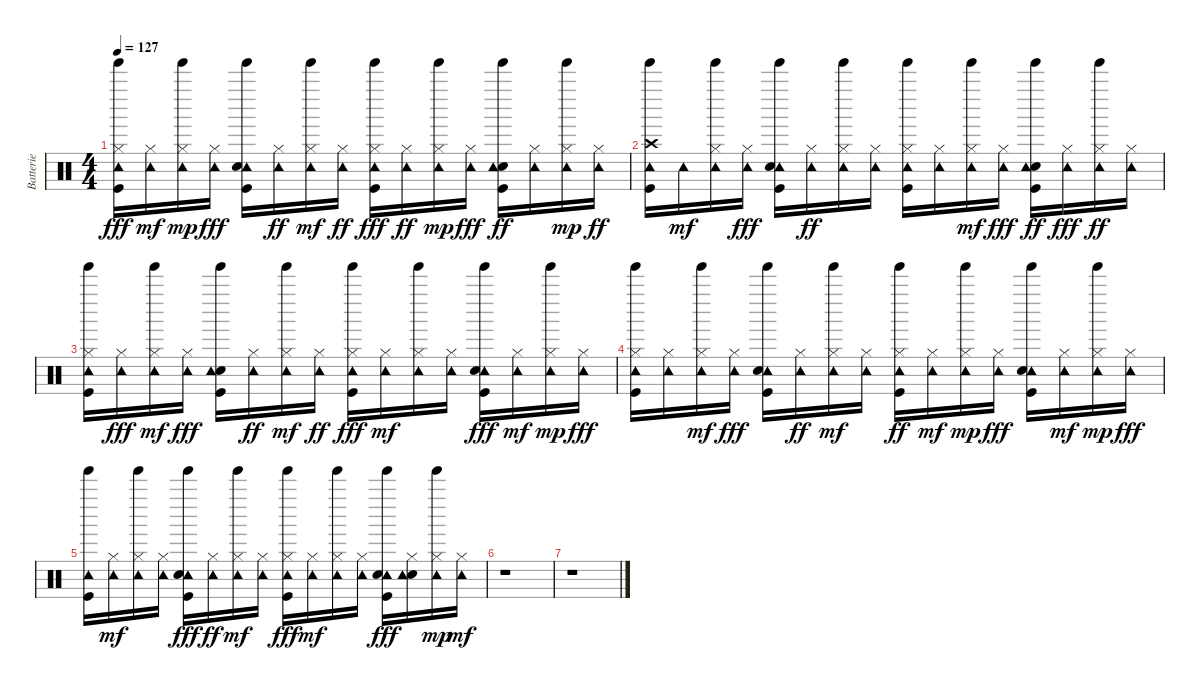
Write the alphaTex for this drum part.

\track ("Batterie" "Batterie") {instrument percussion}
\staff {score}
\articulation defaults
\ts (4 4)
\tempo 127
\clef neutral
\ks c
("Tinkle Bell (hit)" "Tambourine (hit)" "Hi-Hat (closed)" "Kick (hit)").16{dy fff} ("Tambourine (hit)" "Hi-Hat (closed)").16{dy mf} ("Tinkle Bell (hit)" "Hi-Hat (closed)" "Tambourine (hit)").16{dy mp} ("Tambourine (hit)" "Hi-Hat (closed)").16{dy fff} ("Tinkle Bell (hit)" "Tambourine (hit)" "Kick (hit)" "Snare (hit) 2").16 ("Tambourine (hit)" "Hi-Hat (closed)").16{dy ff} ("Tinkle Bell (hit)" "Tambourine (hit)" "Hi-Hat (closed)").16{dy mf} ("Tambourine (hit)" "Hi-Hat (closed)").16{dy ff} ("Tinkle Bell (hit)" "Tambourine (hit)" "Hi-Hat (closed)" "Kick (hit)").16{dy fff} ("Tambourine (hit)" "Hi-Hat (closed)").16{dy ff} ("Hi-Hat (closed)" "Tambourine (hit)" "Tinkle Bell (hit)").16{dy mp} ("Tambourine (hit)" "Hi-Hat (closed)").16{dy fff} ("Tinkle Bell (hit)" "Kick (hit)" "Snare (hit) 2" "Tambourine (hit)").16{dy ff} ("Tambourine (hit)" "Hi-Hat (closed)").16 ("Tinkle Bell (hit)" "Tambourine (hit)" "Hi-Hat (closed)").16{dy mp} ("Tambourine (hit)" "Hi-Hat (closed)").16{dy ff} |
("Crash high (hit)" "Tinkle Bell (hit)" "Kick (hit)" "Tambourine (hit)").16 "Tambourine (hit)".16{dy mf} ("Hi-Hat (closed)" "Tinkle Bell (hit)" "Tambourine (hit)").16 ("Tambourine (hit)" "Hi-Hat (closed)").16{dy fff} ("Tinkle Bell (hit)" "Kick (hit)" "Tambourine (hit)" "Snare (hit) 2").16 ("Tambourine (hit)" "Hi-Hat (closed)").16{dy ff} ("Tinkle Bell (hit)" "Tambourine (hit)" "Hi-Hat (closed)").16 ("Tambourine (hit)" "Hi-Hat (closed)").16 ("Tinkle Bell (hit)" "Kick (hit)" "Hi-Hat (closed)" "Tambourine (hit)").16 ("Tambourine (hit)" "Hi-Hat (closed)").16 ("Tinkle Bell (hit)" "Hi-Hat (closed)" "Tambourine (hit)").16{dy mf} ("Tambourine (hit)" "Hi-Hat (closed)").16{dy fff} ("Tinkle Bell (hit)" "Kick (hit)" "Snare (hit) 2" "Tambourine (hit)").16{dy ff} ("Tambourine (hit)" "Hi-Hat (closed)").16{dy fff} ("Tambourine (hit)" "Tinkle Bell (hit)" "Hi-Hat (closed)").16{dy ff} ("Tambourine (hit)" "Hi-Hat (closed)").16 |
("Tinkle Bell (hit)" "Kick (hit)" "Hi-Hat (closed)" "Tambourine (hit)").16 ("Tambourine (hit)" "Hi-Hat (closed)").16{dy fff} ("Hi-Hat (closed)" "Tambourine (hit)" "Tinkle Bell (hit)").16{dy mf} ("Tambourine (hit)" "Hi-Hat (closed)").16{dy fff} ("Tinkle Bell (hit)" "Snare (hit) 2" "Tambourine (hit)" "Kick (hit)").16 ("Tambourine (hit)" "Hi-Hat (closed)").16{dy ff} ("Tinkle Bell (hit)" "Hi-Hat (closed)" "Tambourine (hit)").16{dy mf} ("Tambourine (hit)" "Hi-Hat (closed)").16{dy ff} ("Tinkle Bell (hit)" "Hi-Hat (closed)" "Tambourine (hit)" "Kick (hit)").16{dy fff} ("Hi-Hat (closed)" "Tambourine (hit)").16{dy mf} ("Tinkle Bell (hit)" "Hi-Hat (closed)" "Tambourine (hit)").16 ("Hi-Hat (closed)" "Tambourine (hit)").16 ("Tinkle Bell (hit)" "Kick (hit)" "Tambourine (hit)" "Snare (hit) 2").16{dy fff} ("Hi-Hat (closed)" "Tambourine (hit)").16{dy mf} ("Hi-Hat (closed)" "Tinkle Bell (hit)" "Tambourine (hit)").16{dy mp} ("Tambourine (hit)" "Hi-Hat (closed)").16{dy fff} |
("Hi-Hat (closed)" "Tambourine (hit)" "Tinkle Bell (hit)" "Kick (hit)").16 ("Tambourine (hit)" "Hi-Hat (closed)").16 ("Tambourine (hit)" "Tinkle Bell (hit)" "Hi-Hat (closed)").16{dy mf} ("Tambourine (hit)" "Hi-Hat (closed)").16{dy fff} ("Tinkle Bell (hit)" "Kick (hit)" "Tambourine (hit)" "Snare (hit) 2").16 ("Tambourine (hit)" "Hi-Hat (closed)").16{dy ff} ("Hi-Hat (closed)" "Tambourine (hit)" "Tinkle Bell (hit)").16{dy mf} ("Hi-Hat (closed)" "Tambourine (hit)").16 ("Tinkle Bell (hit)" "Kick (hit)" "Hi-Hat (closed)" "Tambourine (hit)").16{dy ff} ("Hi-Hat (closed)" "Tambourine (hit)").16{dy mf} ("Tinkle Bell (hit)" "Hi-Hat (closed)" "Tambourine (hit)").16{dy mp} ("Tambourine (hit)" "Hi-Hat (closed)").16{dy fff} ("Tinkle Bell (hit)" "Tambourine (hit)" "Kick (hit)" "Snare (hit) 2").16 ("Hi-Hat (closed)" "Tambourine (hit)").16{dy mf} ("Tambourine (hit)" "Hi-Hat (closed)" "Tinkle Bell (hit)").16{dy mp} ("Tambourine (hit)" "Hi-Hat (closed)").16{dy fff} |
("Tambourine (hit)" "Tinkle Bell (hit)" "Kick (hit)").16 ("Hi-Hat (closed)" "Tambourine (hit)").16{dy mf} ("Tinkle Bell (hit)" "Hi-Hat (closed)" "Tambourine (hit)").16 ("Hi-Hat (closed)" "Tambourine (hit)").16 ("Tambourine (hit)" "Tinkle Bell (hit)" "Kick (hit)" "Snare (hit) 2").16{dy fff} ("Tambourine (hit)" "Hi-Hat (closed)").16{dy ff} ("Hi-Hat (closed)" "Tinkle Bell (hit)" "Tambourine (hit)").16{dy mf} ("Hi-Hat (closed)" "Tambourine (hit)").16 ("Tinkle Bell (hit)" "Kick (hit)" "Tambourine (hit)" "Hi-Hat (closed)").16{dy fff} ("Hi-Hat (closed)" "Tambourine (hit)").16{dy mf} ("Hi-Hat (closed)" "Tambourine (hit)" "Tinkle Bell (hit)").16 ("Hi-Hat (closed)" "Tambourine (hit)").16 ("Tambourine (hit)" "Tinkle Bell (hit)" "Kick (hit)" "Snare (hit) 2").16{dy fff} ("Snare (hit) 2" "Hi-Hat (closed)" "Tambourine (hit)").16 ("Hi-Hat (closed)" "Tambourine (hit)" "Tinkle Bell (hit)").16{dy mp} ("Hi-Hat (closed)" "Tambourine (hit)").16{dy mf} |
r.1 |
r.1
